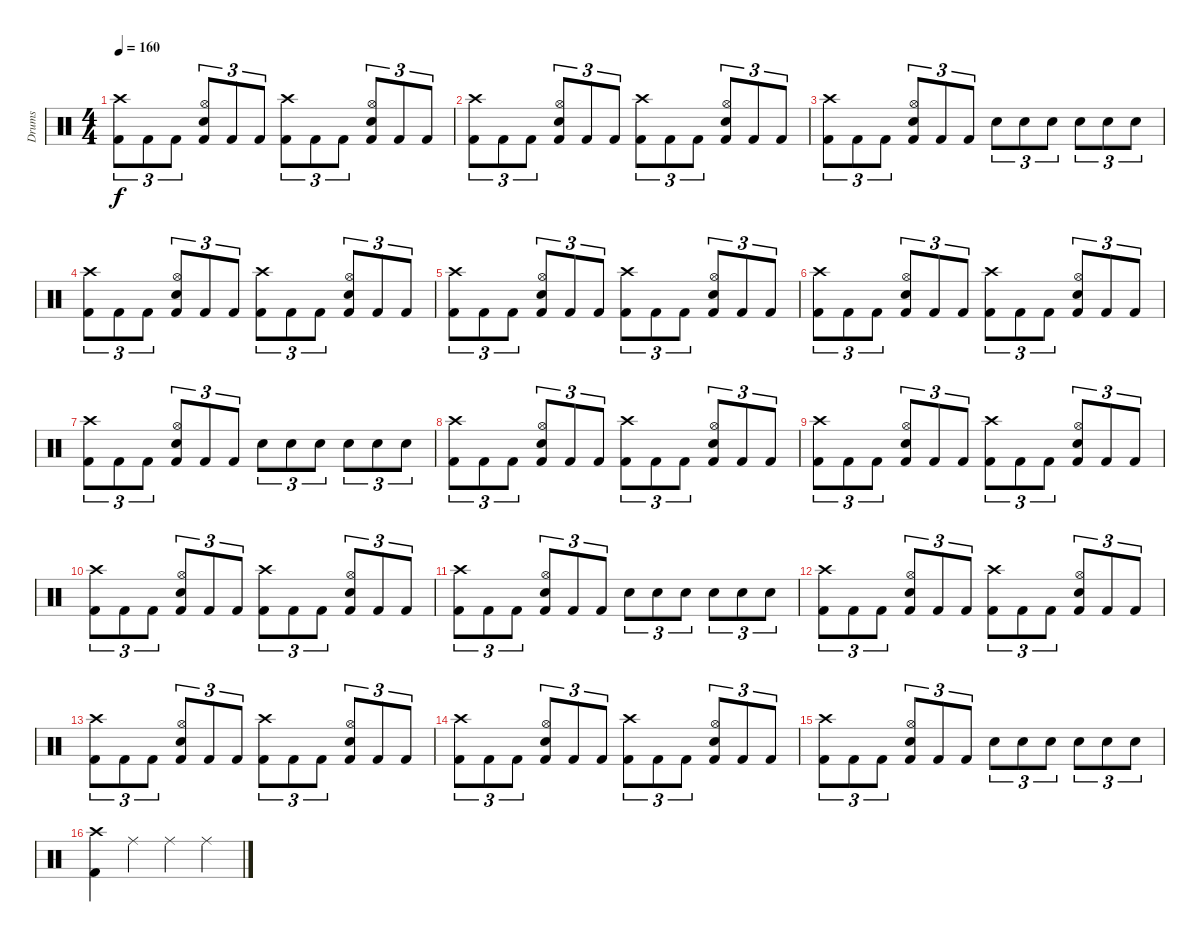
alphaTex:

\track ("Drums" "Drums") {instrument percussion}
\staff {score}
\articulation defaults
\ts (4 4)
\tempo 160
\clef neutral
\ks c
("Crash high (hit)" "Kick (hit) 2").8{tu (3 2) dy f} "Kick (hit) 2".8{tu (3 2)} "Kick (hit) 2".8{tu (3 2)} ("Hi-Hat (open)" "Snare (hit) 2" "Kick (hit) 2").8{tu (3 2)} "Kick (hit) 2".8{tu (3 2)} "Kick (hit) 2".8{tu (3 2)} ("Crash high (hit)" "Kick (hit) 2").8{tu (3 2)} "Kick (hit) 2".8{tu (3 2)} "Kick (hit) 2".8{tu (3 2)} ("Hi-Hat (open)" "Snare (hit) 2" "Kick (hit) 2").8{tu (3 2)} "Kick (hit) 2".8{tu (3 2)} "Kick (hit) 2".8{tu (3 2)} |
("Crash high (hit)" "Kick (hit) 2").8{tu (3 2)} "Kick (hit) 2".8{tu (3 2)} "Kick (hit) 2".8{tu (3 2)} ("Hi-Hat (open)" "Snare (hit) 2" "Kick (hit) 2").8{tu (3 2)} "Kick (hit) 2".8{tu (3 2)} "Kick (hit) 2".8{tu (3 2)} ("Crash high (hit)" "Kick (hit) 2").8{tu (3 2)} "Kick (hit) 2".8{tu (3 2)} "Kick (hit) 2".8{tu (3 2)} ("Hi-Hat (open)" "Snare (hit) 2" "Kick (hit) 2").8{tu (3 2)} "Kick (hit) 2".8{tu (3 2)} "Kick (hit) 2".8{tu (3 2)} |
("Crash high (hit)" "Kick (hit) 2").8{tu (3 2)} "Kick (hit) 2".8{tu (3 2)} "Kick (hit) 2".8{tu (3 2)} ("Hi-Hat (open)" "Snare (hit) 2" "Kick (hit) 2").8{tu (3 2)} "Kick (hit) 2".8{tu (3 2)} "Kick (hit) 2".8{tu (3 2)} "Snare (hit) 2".8{tu (3 2)} "Snare (hit) 2".8{tu (3 2)} "Snare (hit) 2".8{tu (3 2)} "Snare (hit) 2".8{tu (3 2)} "Snare (hit) 2".8{tu (3 2)} "Snare (hit) 2".8{tu (3 2)} |
("Crash high (hit)" "Kick (hit) 2").8{tu (3 2)} "Kick (hit) 2".8{tu (3 2)} "Kick (hit) 2".8{tu (3 2)} ("Hi-Hat (open)" "Snare (hit) 2" "Kick (hit) 2").8{tu (3 2)} "Kick (hit) 2".8{tu (3 2)} "Kick (hit) 2".8{tu (3 2)} ("Crash high (hit)" "Kick (hit) 2").8{tu (3 2)} "Kick (hit) 2".8{tu (3 2)} "Kick (hit) 2".8{tu (3 2)} ("Hi-Hat (open)" "Snare (hit) 2" "Kick (hit) 2").8{tu (3 2)} "Kick (hit) 2".8{tu (3 2)} "Kick (hit) 2".8{tu (3 2)} |
("Crash high (hit)" "Kick (hit) 2").8{tu (3 2)} "Kick (hit) 2".8{tu (3 2)} "Kick (hit) 2".8{tu (3 2)} ("Hi-Hat (open)" "Snare (hit) 2" "Kick (hit) 2").8{tu (3 2)} "Kick (hit) 2".8{tu (3 2)} "Kick (hit) 2".8{tu (3 2)} ("Crash high (hit)" "Kick (hit) 2").8{tu (3 2)} "Kick (hit) 2".8{tu (3 2)} "Kick (hit) 2".8{tu (3 2)} ("Hi-Hat (open)" "Snare (hit) 2" "Kick (hit) 2").8{tu (3 2)} "Kick (hit) 2".8{tu (3 2)} "Kick (hit) 2".8{tu (3 2)} |
("Crash high (hit)" "Kick (hit) 2").8{tu (3 2)} "Kick (hit) 2".8{tu (3 2)} "Kick (hit) 2".8{tu (3 2)} ("Hi-Hat (open)" "Snare (hit) 2" "Kick (hit) 2").8{tu (3 2)} "Kick (hit) 2".8{tu (3 2)} "Kick (hit) 2".8{tu (3 2)} ("Crash high (hit)" "Kick (hit) 2").8{tu (3 2)} "Kick (hit) 2".8{tu (3 2)} "Kick (hit) 2".8{tu (3 2)} ("Hi-Hat (open)" "Snare (hit) 2" "Kick (hit) 2").8{tu (3 2)} "Kick (hit) 2".8{tu (3 2)} "Kick (hit) 2".8{tu (3 2)} |
("Crash high (hit)" "Kick (hit) 2").8{tu (3 2)} "Kick (hit) 2".8{tu (3 2)} "Kick (hit) 2".8{tu (3 2)} ("Hi-Hat (open)" "Snare (hit) 2" "Kick (hit) 2").8{tu (3 2)} "Kick (hit) 2".8{tu (3 2)} "Kick (hit) 2".8{tu (3 2)} "Snare (hit) 2".8{tu (3 2)} "Snare (hit) 2".8{tu (3 2)} "Snare (hit) 2".8{tu (3 2)} "Snare (hit) 2".8{tu (3 2)} "Snare (hit) 2".8{tu (3 2)} "Snare (hit) 2".8{tu (3 2)} |
("Crash high (hit)" "Kick (hit) 2").8{tu (3 2)} "Kick (hit) 2".8{tu (3 2)} "Kick (hit) 2".8{tu (3 2)} ("Hi-Hat (open)" "Snare (hit) 2" "Kick (hit) 2").8{tu (3 2)} "Kick (hit) 2".8{tu (3 2)} "Kick (hit) 2".8{tu (3 2)} ("Crash high (hit)" "Kick (hit) 2").8{tu (3 2)} "Kick (hit) 2".8{tu (3 2)} "Kick (hit) 2".8{tu (3 2)} ("Hi-Hat (open)" "Snare (hit) 2" "Kick (hit) 2").8{tu (3 2)} "Kick (hit) 2".8{tu (3 2)} "Kick (hit) 2".8{tu (3 2)} |
("Crash high (hit)" "Kick (hit) 2").8{tu (3 2)} "Kick (hit) 2".8{tu (3 2)} "Kick (hit) 2".8{tu (3 2)} ("Hi-Hat (open)" "Snare (hit) 2" "Kick (hit) 2").8{tu (3 2)} "Kick (hit) 2".8{tu (3 2)} "Kick (hit) 2".8{tu (3 2)} ("Crash high (hit)" "Kick (hit) 2").8{tu (3 2)} "Kick (hit) 2".8{tu (3 2)} "Kick (hit) 2".8{tu (3 2)} ("Hi-Hat (open)" "Snare (hit) 2" "Kick (hit) 2").8{tu (3 2)} "Kick (hit) 2".8{tu (3 2)} "Kick (hit) 2".8{tu (3 2)} |
("Crash high (hit)" "Kick (hit) 2").8{tu (3 2)} "Kick (hit) 2".8{tu (3 2)} "Kick (hit) 2".8{tu (3 2)} ("Hi-Hat (open)" "Snare (hit) 2" "Kick (hit) 2").8{tu (3 2)} "Kick (hit) 2".8{tu (3 2)} "Kick (hit) 2".8{tu (3 2)} ("Crash high (hit)" "Kick (hit) 2").8{tu (3 2)} "Kick (hit) 2".8{tu (3 2)} "Kick (hit) 2".8{tu (3 2)} ("Hi-Hat (open)" "Snare (hit) 2" "Kick (hit) 2").8{tu (3 2)} "Kick (hit) 2".8{tu (3 2)} "Kick (hit) 2".8{tu (3 2)} |
("Crash high (hit)" "Kick (hit) 2").8{tu (3 2)} "Kick (hit) 2".8{tu (3 2)} "Kick (hit) 2".8{tu (3 2)} ("Hi-Hat (open)" "Snare (hit) 2" "Kick (hit) 2").8{tu (3 2)} "Kick (hit) 2".8{tu (3 2)} "Kick (hit) 2".8{tu (3 2)} "Snare (hit) 2".8{tu (3 2)} "Snare (hit) 2".8{tu (3 2)} "Snare (hit) 2".8{tu (3 2)} "Snare (hit) 2".8{tu (3 2)} "Snare (hit) 2".8{tu (3 2)} "Snare (hit) 2".8{tu (3 2)} |
("Crash high (hit)" "Kick (hit) 2").8{tu (3 2)} "Kick (hit) 2".8{tu (3 2)} "Kick (hit) 2".8{tu (3 2)} ("Hi-Hat (open)" "Snare (hit) 2" "Kick (hit) 2").8{tu (3 2)} "Kick (hit) 2".8{tu (3 2)} "Kick (hit) 2".8{tu (3 2)} ("Crash high (hit)" "Kick (hit) 2").8{tu (3 2)} "Kick (hit) 2".8{tu (3 2)} "Kick (hit) 2".8{tu (3 2)} ("Hi-Hat (open)" "Snare (hit) 2" "Kick (hit) 2").8{tu (3 2)} "Kick (hit) 2".8{tu (3 2)} "Kick (hit) 2".8{tu (3 2)} |
("Crash high (hit)" "Kick (hit) 2").8{tu (3 2)} "Kick (hit) 2".8{tu (3 2)} "Kick (hit) 2".8{tu (3 2)} ("Hi-Hat (open)" "Snare (hit) 2" "Kick (hit) 2").8{tu (3 2)} "Kick (hit) 2".8{tu (3 2)} "Kick (hit) 2".8{tu (3 2)} ("Crash high (hit)" "Kick (hit) 2").8{tu (3 2)} "Kick (hit) 2".8{tu (3 2)} "Kick (hit) 2".8{tu (3 2)} ("Hi-Hat (open)" "Snare (hit) 2" "Kick (hit) 2").8{tu (3 2)} "Kick (hit) 2".8{tu (3 2)} "Kick (hit) 2".8{tu (3 2)} |
("Crash high (hit)" "Kick (hit) 2").8{tu (3 2)} "Kick (hit) 2".8{tu (3 2)} "Kick (hit) 2".8{tu (3 2)} ("Hi-Hat (open)" "Snare (hit) 2" "Kick (hit) 2").8{tu (3 2)} "Kick (hit) 2".8{tu (3 2)} "Kick (hit) 2".8{tu (3 2)} ("Crash high (hit)" "Kick (hit) 2").8{tu (3 2)} "Kick (hit) 2".8{tu (3 2)} "Kick (hit) 2".8{tu (3 2)} ("Hi-Hat (open)" "Snare (hit) 2" "Kick (hit) 2").8{tu (3 2)} "Kick (hit) 2".8{tu (3 2)} "Kick (hit) 2".8{tu (3 2)} |
("Crash high (hit)" "Kick (hit) 2").8{tu (3 2)} "Kick (hit) 2".8{tu (3 2)} "Kick (hit) 2".8{tu (3 2)} ("Hi-Hat (open)" "Snare (hit) 2" "Kick (hit) 2").8{tu (3 2)} "Kick (hit) 2".8{tu (3 2)} "Kick (hit) 2".8{tu (3 2)} "Snare (hit) 2".8{tu (3 2)} "Snare (hit) 2".8{tu (3 2)} "Snare (hit) 2".8{tu (3 2)} "Snare (hit) 2".8{tu (3 2)} "Snare (hit) 2".8{tu (3 2)} "Snare (hit) 2".8{tu (3 2)} |
("Crash high (hit)" "Kick (hit) 2").4 "Ride (middle)".4 "Ride (middle)".4 "Ride (middle)".4
